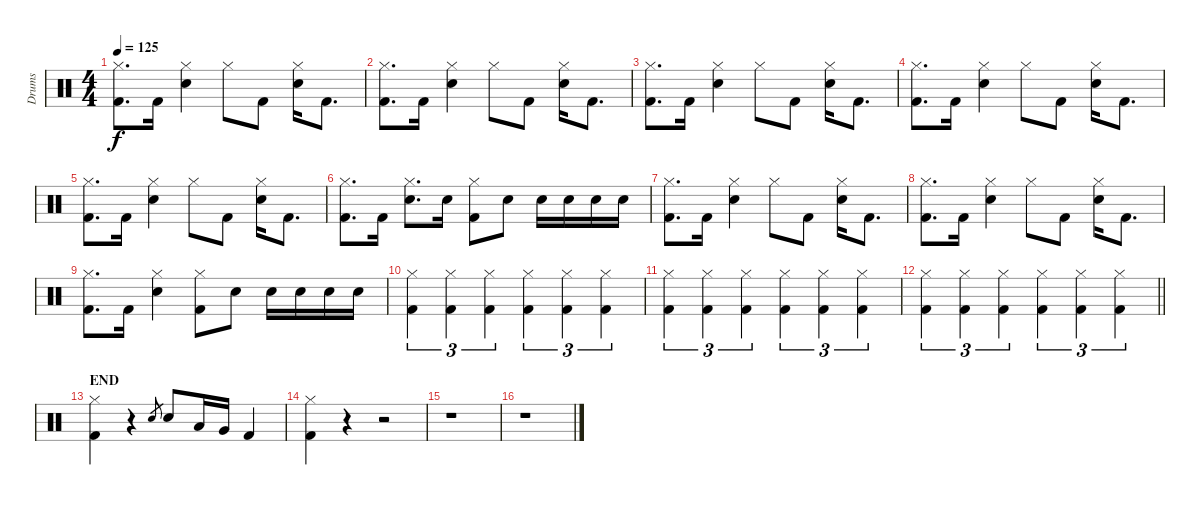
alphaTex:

\track ("Drums" "Drums") {instrument percussion}
\staff {score}
\articulation defaults
\ts (4 4)
\tempo 125
\clef neutral
\ks aminor
("Hi-Hat (closed)" "Kick (hit) 2").8{d dy f} "Kick (hit) 2".16 ("Hi-Hat (closed)" "Electric Snare (hit)").4 "Hi-Hat (closed)".8 "Kick (hit) 2".8 ("Hi-Hat (closed)" "Electric Snare (hit)").16 "Kick (hit) 2".8{d} |
("Hi-Hat (closed)" "Kick (hit) 2").8{d} "Kick (hit) 2".16 ("Hi-Hat (closed)" "Electric Snare (hit)").4 "Hi-Hat (closed)".8 "Kick (hit) 2".8 ("Hi-Hat (closed)" "Electric Snare (hit)").16 "Kick (hit) 2".8{d} |
("Hi-Hat (closed)" "Kick (hit) 2").8{d} "Kick (hit) 2".16 ("Hi-Hat (closed)" "Electric Snare (hit)").4 "Hi-Hat (closed)".8 "Kick (hit) 2".8 ("Hi-Hat (closed)" "Electric Snare (hit)").16 "Kick (hit) 2".8{d} |
("Hi-Hat (closed)" "Kick (hit) 2").8{d} "Kick (hit) 2".16 ("Hi-Hat (closed)" "Electric Snare (hit)").4 "Hi-Hat (closed)".8 "Kick (hit) 2".8 ("Hi-Hat (closed)" "Electric Snare (hit)").16 "Kick (hit) 2".8{d} |
("Hi-Hat (closed)" "Kick (hit) 2").8{d} "Kick (hit) 2".16 ("Hi-Hat (closed)" "Electric Snare (hit)").4 "Hi-Hat (closed)".8 "Kick (hit) 2".8 ("Hi-Hat (closed)" "Electric Snare (hit)").16 "Kick (hit) 2".8{d} |
("Hi-Hat (closed)" "Kick (hit) 2").8{d} "Kick (hit) 2".16 ("Hi-Hat (closed)" "Electric Snare (hit)").8{d} "Electric Snare (hit)".16 ("Hi-Hat (closed)" "Kick (hit) 2").8 "Electric Snare (hit)".8 "Electric Snare (hit)".16 "Electric Snare (hit)".16 "Electric Snare (hit)".16 "Electric Snare (hit)".16 |
("Hi-Hat (closed)" "Kick (hit) 2").8{d} "Kick (hit) 2".16 ("Hi-Hat (closed)" "Electric Snare (hit)").4 "Hi-Hat (closed)".8 "Kick (hit) 2".8 ("Hi-Hat (closed)" "Electric Snare (hit)").16 "Kick (hit) 2".8{d} |
("Hi-Hat (closed)" "Kick (hit) 2").8{d} "Kick (hit) 2".16 ("Hi-Hat (closed)" "Electric Snare (hit)").4 "Hi-Hat (closed)".8 "Kick (hit) 2".8 ("Hi-Hat (closed)" "Electric Snare (hit)").16 "Kick (hit) 2".8{d} |
("Hi-Hat (closed)" "Kick (hit) 2").8{d} "Kick (hit) 2".16 ("Hi-Hat (closed)" "Electric Snare (hit)").4 ("Hi-Hat (closed)" "Kick (hit) 2").8 "Electric Snare (hit)".8 "Electric Snare (hit)".16 "Snare (hit)".16 "Snare (hit)".16 "Snare (hit)".16 |
("Hi-Hat (closed)" "Kick (hit) 2").4{tu (3 2)} ("Hi-Hat (closed)" "Kick (hit) 2").4{tu (3 2)} ("Hi-Hat (closed)" "Kick (hit) 2").4{tu (3 2)} ("Hi-Hat (closed)" "Kick (hit) 2").4{tu (3 2)} ("Hi-Hat (closed)" "Kick (hit) 2").4{tu (3 2)} ("Hi-Hat (closed)" "Kick (hit) 2").4{tu (3 2)} |
("Hi-Hat (closed)" "Kick (hit) 2").4{tu (3 2)} ("Hi-Hat (closed)" "Kick (hit) 2").4{tu (3 2)} ("Hi-Hat (closed)" "Kick (hit) 2").4{tu (3 2)} ("Hi-Hat (closed)" "Kick (hit) 2").4{tu (3 2)} ("Hi-Hat (closed)" "Kick (hit) 2").4{tu (3 2)} ("Hi-Hat (closed)" "Kick (hit) 2").4{tu (3 2)} |
\barLineRight lightlight
("Hi-Hat (closed)" "Kick (hit) 2").4{tu (3 2)} ("Hi-Hat (closed)" "Kick (hit) 2").4{tu (3 2)} ("Hi-Hat (closed)" "Kick (hit) 2").4{tu (3 2)} ("Hi-Hat (closed)" "Kick (hit) 2").4{tu (3 2)} ("Hi-Hat (closed)" "Kick (hit) 2").4{tu (3 2)} ("Hi-Hat (closed)" "Kick (hit) 2").4{tu (3 2)} |
\section ("" "END")
("Hi-Hat (closed)" "Kick (hit) 2").4 r.4 "Electric Snare (hit)".8{gr} "Electric Snare (hit)".8 "Low Tom (hit)".16 "Very Low Tom (hit)".16 "Kick (hit) 2".4 |
("Hi-Hat (closed)" "Kick (hit) 2").4 r.4 r.2 |
r.1 |
r.1
